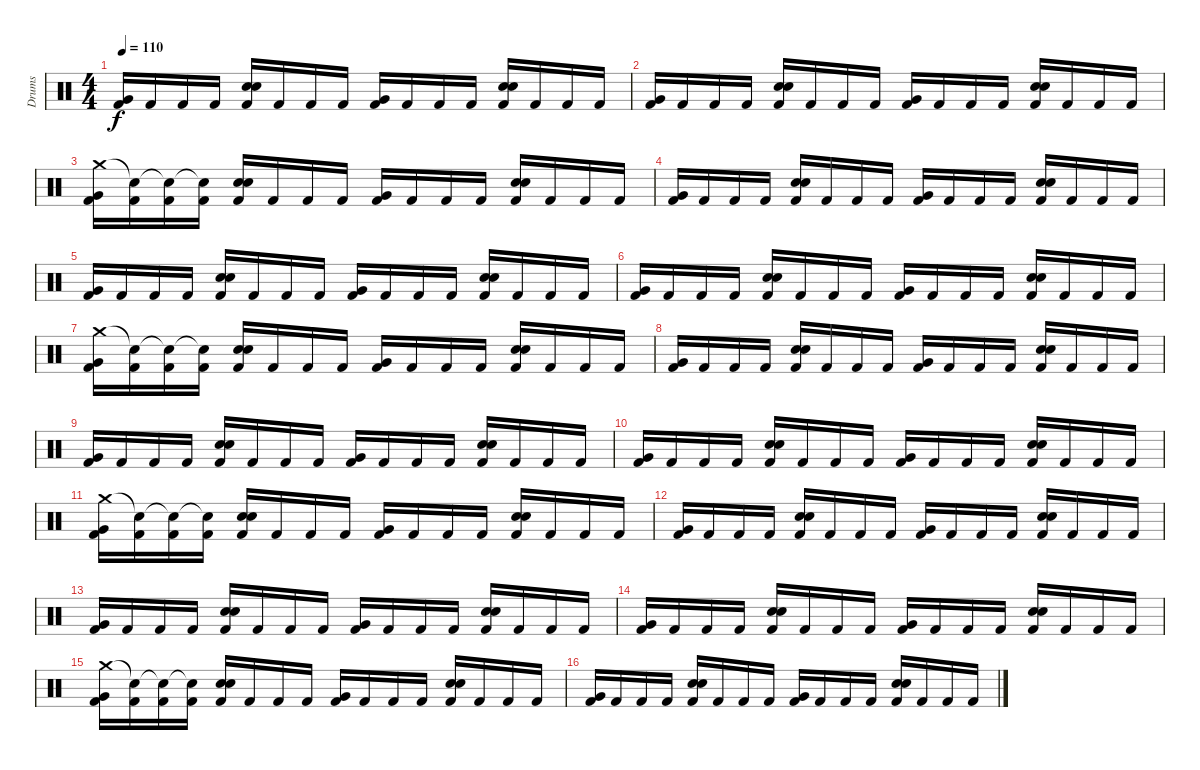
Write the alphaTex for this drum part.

\track ("Drums" "Drums") {instrument percussion}
\staff {score}
\articulation defaults
\ts (4 4)
\tempo 110
\clef neutral
\ks c
("Very Low Tom (hit)" "Kick (hit) 2").16{dy f} "Kick (hit) 2".16 "Kick (hit) 2".16 "Kick (hit) 2".16 ("Electric Snare (hit)" "Electric Snare (hit)" "Kick (hit) 2").16 "Kick (hit) 2".16 "Kick (hit) 2".16 "Kick (hit) 2".16 ("Very Low Tom (hit)" "Kick (hit) 2").16 "Kick (hit) 2".16 "Kick (hit) 2".16 "Kick (hit) 2".16 ("Electric Snare (hit)" "Electric Snare (hit)" "Kick (hit) 2").16 "Kick (hit) 2".16 "Kick (hit) 2".16 "Kick (hit) 2".16 |
("Very Low Tom (hit)" "Kick (hit) 2").16 "Kick (hit) 2".16 "Kick (hit) 2".16 "Kick (hit) 2".16 ("Electric Snare (hit)" "Electric Snare (hit)" "Kick (hit) 2").16 "Kick (hit) 2".16 "Kick (hit) 2".16 "Kick (hit) 2".16 ("Very Low Tom (hit)" "Kick (hit) 2").16 "Kick (hit) 2".16 "Kick (hit) 2".16 "Kick (hit) 2".16 ("Electric Snare (hit)" "Electric Snare (hit)" "Kick (hit) 2").16 "Kick (hit) 2".16 "Kick (hit) 2".16 "Kick (hit) 2".16 |
("Crash medium (hit)" "Very Low Tom (hit)" "Kick (hit) 2").16 ("Snare (hit)"{t} "Kick (hit) 2").16 ("Snare (hit)"{t} "Kick (hit) 2").16 ("Snare (hit)"{t} "Kick (hit) 2").16 ("Electric Snare (hit)" "Electric Snare (hit)" "Kick (hit) 2").16 "Kick (hit) 2".16 "Kick (hit) 2".16 "Kick (hit) 2".16 ("Very Low Tom (hit)" "Kick (hit) 2").16 "Kick (hit) 2".16 "Kick (hit) 2".16 "Kick (hit) 2".16 ("Electric Snare (hit)" "Electric Snare (hit)" "Kick (hit) 2").16 "Kick (hit) 2".16 "Kick (hit) 2".16 "Kick (hit) 2".16 |
("Very Low Tom (hit)" "Kick (hit) 2").16 "Kick (hit) 2".16 "Kick (hit) 2".16 "Kick (hit) 2".16 ("Electric Snare (hit)" "Electric Snare (hit)" "Kick (hit) 2").16 "Kick (hit) 2".16 "Kick (hit) 2".16 "Kick (hit) 2".16 ("Very Low Tom (hit)" "Kick (hit) 2").16 "Kick (hit) 2".16 "Kick (hit) 2".16 "Kick (hit) 2".16 ("Electric Snare (hit)" "Electric Snare (hit)" "Kick (hit) 2").16 "Kick (hit) 2".16 "Kick (hit) 2".16 "Kick (hit) 2".16 |
("Very Low Tom (hit)" "Kick (hit) 2").16 "Kick (hit) 2".16 "Kick (hit) 2".16 "Kick (hit) 2".16 ("Electric Snare (hit)" "Electric Snare (hit)" "Kick (hit) 2").16 "Kick (hit) 2".16 "Kick (hit) 2".16 "Kick (hit) 2".16 ("Very Low Tom (hit)" "Kick (hit) 2").16 "Kick (hit) 2".16 "Kick (hit) 2".16 "Kick (hit) 2".16 ("Electric Snare (hit)" "Electric Snare (hit)" "Kick (hit) 2").16 "Kick (hit) 2".16 "Kick (hit) 2".16 "Kick (hit) 2".16 |
("Very Low Tom (hit)" "Kick (hit) 2").16 "Kick (hit) 2".16 "Kick (hit) 2".16 "Kick (hit) 2".16 ("Electric Snare (hit)" "Electric Snare (hit)" "Kick (hit) 2").16 "Kick (hit) 2".16 "Kick (hit) 2".16 "Kick (hit) 2".16 ("Very Low Tom (hit)" "Kick (hit) 2").16 "Kick (hit) 2".16 "Kick (hit) 2".16 "Kick (hit) 2".16 ("Electric Snare (hit)" "Electric Snare (hit)" "Kick (hit) 2").16 "Kick (hit) 2".16 "Kick (hit) 2".16 "Kick (hit) 2".16 |
("Crash medium (hit)" "Very Low Tom (hit)" "Kick (hit) 2").16 ("Snare (hit)"{t} "Kick (hit) 2").16 ("Snare (hit)"{t} "Kick (hit) 2").16 ("Snare (hit)"{t} "Kick (hit) 2").16 ("Electric Snare (hit)" "Electric Snare (hit)" "Kick (hit) 2").16 "Kick (hit) 2".16 "Kick (hit) 2".16 "Kick (hit) 2".16 ("Very Low Tom (hit)" "Kick (hit) 2").16 "Kick (hit) 2".16 "Kick (hit) 2".16 "Kick (hit) 2".16 ("Electric Snare (hit)" "Electric Snare (hit)" "Kick (hit) 2").16 "Kick (hit) 2".16 "Kick (hit) 2".16 "Kick (hit) 2".16 |
("Very Low Tom (hit)" "Kick (hit) 2").16 "Kick (hit) 2".16 "Kick (hit) 2".16 "Kick (hit) 2".16 ("Electric Snare (hit)" "Electric Snare (hit)" "Kick (hit) 2").16 "Kick (hit) 2".16 "Kick (hit) 2".16 "Kick (hit) 2".16 ("Very Low Tom (hit)" "Kick (hit) 2").16 "Kick (hit) 2".16 "Kick (hit) 2".16 "Kick (hit) 2".16 ("Electric Snare (hit)" "Electric Snare (hit)" "Kick (hit) 2").16 "Kick (hit) 2".16 "Kick (hit) 2".16 "Kick (hit) 2".16 |
("Very Low Tom (hit)" "Kick (hit) 2").16 "Kick (hit) 2".16 "Kick (hit) 2".16 "Kick (hit) 2".16 ("Electric Snare (hit)" "Electric Snare (hit)" "Kick (hit) 2").16 "Kick (hit) 2".16 "Kick (hit) 2".16 "Kick (hit) 2".16 ("Very Low Tom (hit)" "Kick (hit) 2").16 "Kick (hit) 2".16 "Kick (hit) 2".16 "Kick (hit) 2".16 ("Electric Snare (hit)" "Electric Snare (hit)" "Kick (hit) 2").16 "Kick (hit) 2".16 "Kick (hit) 2".16 "Kick (hit) 2".16 |
("Very Low Tom (hit)" "Kick (hit) 2").16 "Kick (hit) 2".16 "Kick (hit) 2".16 "Kick (hit) 2".16 ("Electric Snare (hit)" "Electric Snare (hit)" "Kick (hit) 2").16 "Kick (hit) 2".16 "Kick (hit) 2".16 "Kick (hit) 2".16 ("Very Low Tom (hit)" "Kick (hit) 2").16 "Kick (hit) 2".16 "Kick (hit) 2".16 "Kick (hit) 2".16 ("Electric Snare (hit)" "Electric Snare (hit)" "Kick (hit) 2").16 "Kick (hit) 2".16 "Kick (hit) 2".16 "Kick (hit) 2".16 |
("Crash medium (hit)" "Very Low Tom (hit)" "Kick (hit) 2").16 ("Snare (hit)"{t} "Kick (hit) 2").16 ("Snare (hit)"{t} "Kick (hit) 2").16 ("Snare (hit)"{t} "Kick (hit) 2").16 ("Electric Snare (hit)" "Electric Snare (hit)" "Kick (hit) 2").16 "Kick (hit) 2".16 "Kick (hit) 2".16 "Kick (hit) 2".16 ("Very Low Tom (hit)" "Kick (hit) 2").16 "Kick (hit) 2".16 "Kick (hit) 2".16 "Kick (hit) 2".16 ("Electric Snare (hit)" "Electric Snare (hit)" "Kick (hit) 2").16 "Kick (hit) 2".16 "Kick (hit) 2".16 "Kick (hit) 2".16 |
("Very Low Tom (hit)" "Kick (hit) 2").16 "Kick (hit) 2".16 "Kick (hit) 2".16 "Kick (hit) 2".16 ("Electric Snare (hit)" "Electric Snare (hit)" "Kick (hit) 2").16 "Kick (hit) 2".16 "Kick (hit) 2".16 "Kick (hit) 2".16 ("Very Low Tom (hit)" "Kick (hit) 2").16 "Kick (hit) 2".16 "Kick (hit) 2".16 "Kick (hit) 2".16 ("Electric Snare (hit)" "Electric Snare (hit)" "Kick (hit) 2").16 "Kick (hit) 2".16 "Kick (hit) 2".16 "Kick (hit) 2".16 |
("Very Low Tom (hit)" "Kick (hit) 2").16 "Kick (hit) 2".16 "Kick (hit) 2".16 "Kick (hit) 2".16 ("Electric Snare (hit)" "Electric Snare (hit)" "Kick (hit) 2").16 "Kick (hit) 2".16 "Kick (hit) 2".16 "Kick (hit) 2".16 ("Very Low Tom (hit)" "Kick (hit) 2").16 "Kick (hit) 2".16 "Kick (hit) 2".16 "Kick (hit) 2".16 ("Electric Snare (hit)" "Electric Snare (hit)" "Kick (hit) 2").16 "Kick (hit) 2".16 "Kick (hit) 2".16 "Kick (hit) 2".16 |
("Very Low Tom (hit)" "Kick (hit) 2").16 "Kick (hit) 2".16 "Kick (hit) 2".16 "Kick (hit) 2".16 ("Electric Snare (hit)" "Electric Snare (hit)" "Kick (hit) 2").16 "Kick (hit) 2".16 "Kick (hit) 2".16 "Kick (hit) 2".16 ("Very Low Tom (hit)" "Kick (hit) 2").16 "Kick (hit) 2".16 "Kick (hit) 2".16 "Kick (hit) 2".16 ("Electric Snare (hit)" "Electric Snare (hit)" "Kick (hit) 2").16 "Kick (hit) 2".16 "Kick (hit) 2".16 "Kick (hit) 2".16 |
("Crash medium (hit)" "Very Low Tom (hit)" "Kick (hit) 2").16 ("Snare (hit)"{t} "Kick (hit) 2").16 ("Snare (hit)"{t} "Kick (hit) 2").16 ("Snare (hit)"{t} "Kick (hit) 2").16 ("Electric Snare (hit)" "Electric Snare (hit)" "Kick (hit) 2").16 "Kick (hit) 2".16 "Kick (hit) 2".16 "Kick (hit) 2".16 ("Very Low Tom (hit)" "Kick (hit) 2").16 "Kick (hit) 2".16 "Kick (hit) 2".16 "Kick (hit) 2".16 ("Electric Snare (hit)" "Electric Snare (hit)" "Kick (hit) 2").16 "Kick (hit) 2".16 "Kick (hit) 2".16 "Kick (hit) 2".16 |
("Very Low Tom (hit)" "Kick (hit) 2").16 "Kick (hit) 2".16 "Kick (hit) 2".16 "Kick (hit) 2".16 ("Electric Snare (hit)" "Electric Snare (hit)" "Kick (hit) 2").16 "Kick (hit) 2".16 "Kick (hit) 2".16 "Kick (hit) 2".16 ("Very Low Tom (hit)" "Kick (hit) 2").16 "Kick (hit) 2".16 "Kick (hit) 2".16 "Kick (hit) 2".16 ("Electric Snare (hit)" "Electric Snare (hit)" "Kick (hit) 2").16 "Kick (hit) 2".16 "Kick (hit) 2".16 "Kick (hit) 2".16
